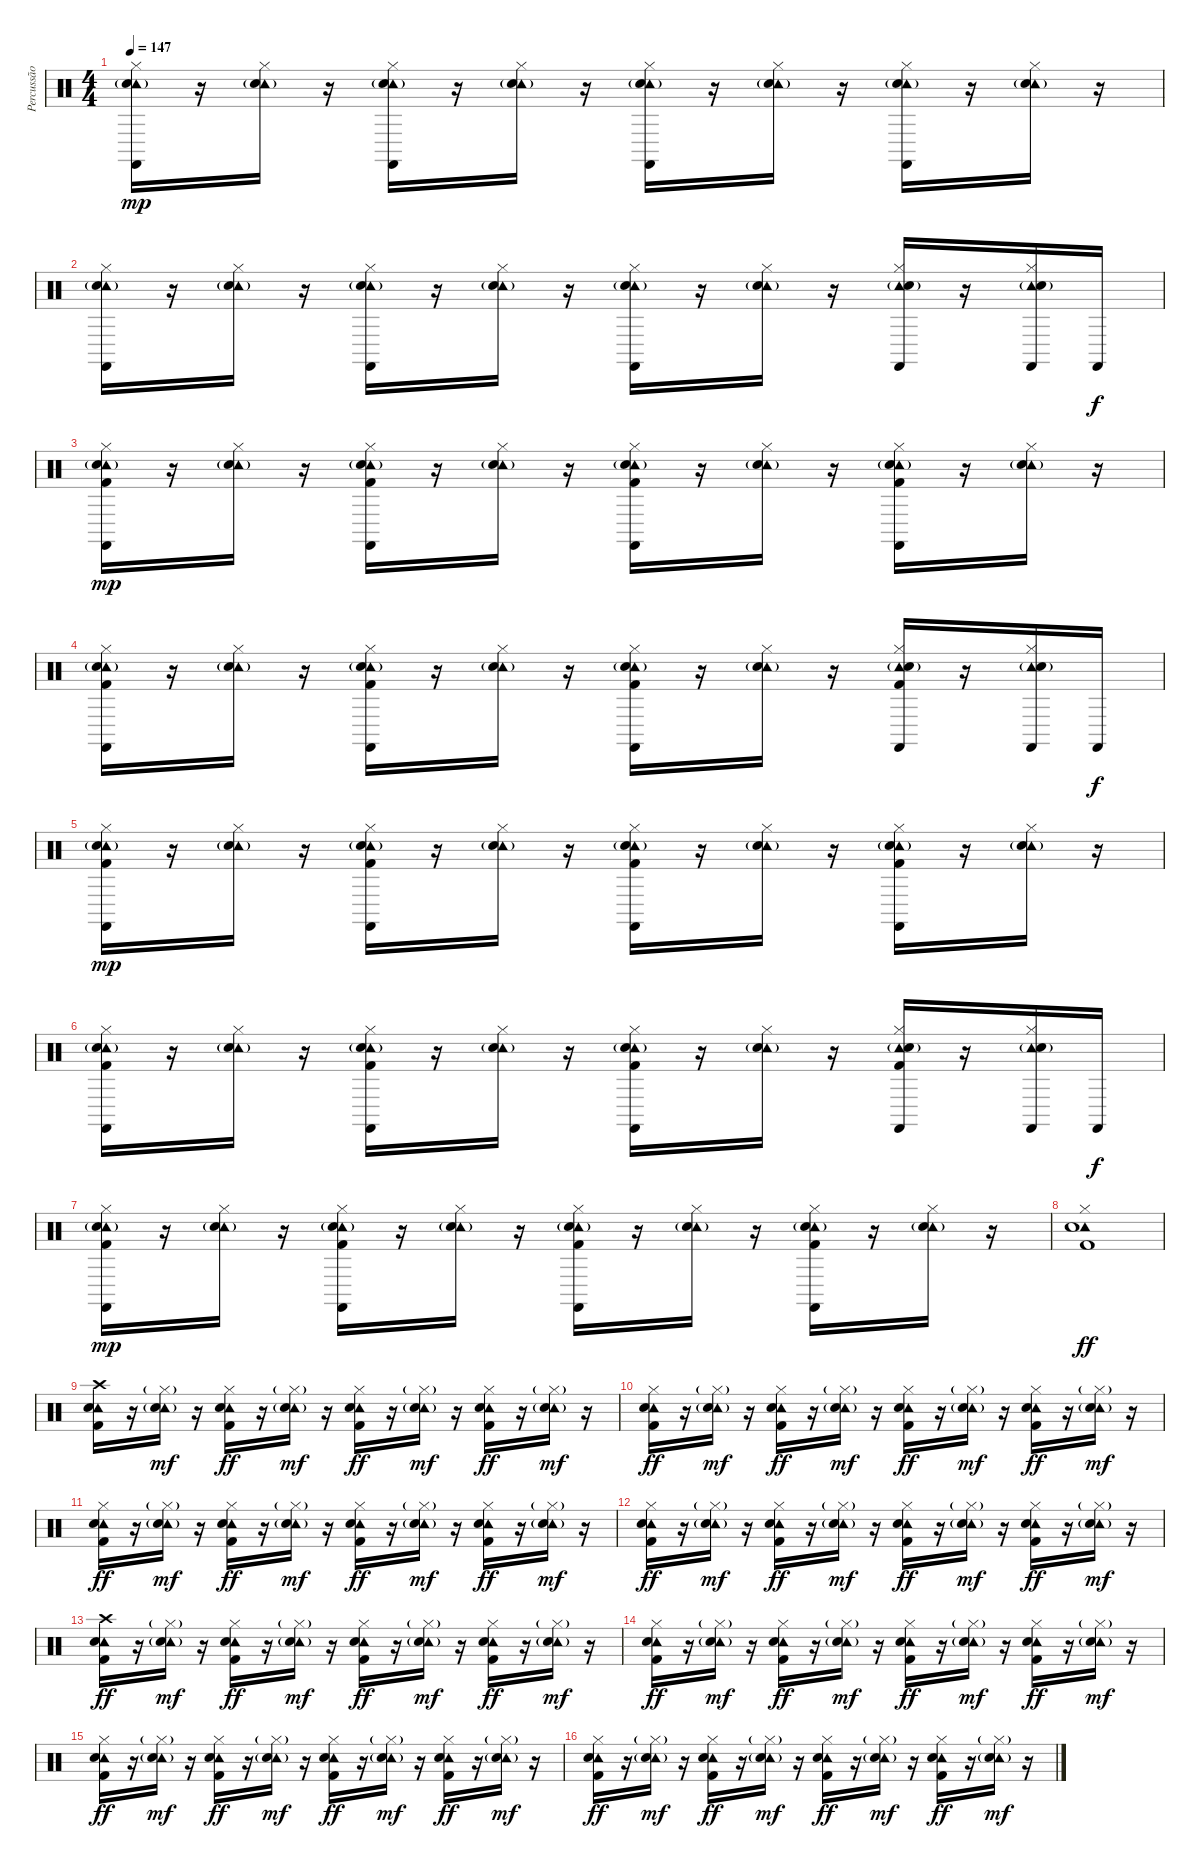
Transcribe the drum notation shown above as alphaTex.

\track ("Percussão" "Percussão") {instrument percussion}
\staff {score}
\articulation defaults
\ts (4 4)
\tempo 147
\clef neutral
\ks c
("Hi-Hat (closed)" "Castanets (hit)" "Tambourine (hit)" "Snare (hit) 2"{g}).16{dy mp} r.16 ("Hi-Hat (closed)" "Tambourine (hit)" "Snare (hit) 2"{g}).16 r.16 ("Hi-Hat (closed)" "Castanets (hit)" "Tambourine (hit)" "Snare (hit) 2"{g}).16 r.16 ("Hi-Hat (closed)" "Tambourine (hit)" "Snare (hit) 2"{g}).16 r.16 ("Hi-Hat (closed)" "Castanets (hit)" "Tambourine (hit)" "Snare (hit) 2"{g}).16 r.16 ("Hi-Hat (closed)" "Tambourine (hit)" "Snare (hit) 2"{g}).16 r.16 ("Hi-Hat (closed)" "Castanets (hit)" "Tambourine (hit)" "Snare (hit) 2"{g}).16 r.16 ("Hi-Hat (closed)" "Tambourine (hit)" "Snare (hit) 2"{g}).16 r.16 |
("Hi-Hat (closed)" "Castanets (hit)" "Tambourine (hit)" "Snare (hit) 2"{g}).16 r.16 ("Hi-Hat (closed)" "Tambourine (hit)" "Snare (hit) 2"{g}).16 r.16 ("Hi-Hat (closed)" "Castanets (hit)" "Tambourine (hit)" "Snare (hit) 2"{g}).16 r.16 ("Hi-Hat (closed)" "Tambourine (hit)" "Snare (hit) 2"{g}).16 r.16 ("Hi-Hat (closed)" "Castanets (hit)" "Tambourine (hit)" "Snare (hit) 2"{g}).16 r.16 ("Hi-Hat (closed)" "Tambourine (hit)" "Snare (hit) 2"{g}).16 r.16 ("Hi-Hat (closed)" "Castanets (hit)" "Tambourine (hit)" "Snare (hit) 2"{g}).16 r.16 ("Hi-Hat (closed)" "Castanets (hit)" "Tambourine (hit)" "Snare (hit) 2"{g}).16 "Castanets (hit)".16{dy f} |
("Hi-Hat (closed)" "Castanets (hit)" "Tambourine (hit)" "Snare (hit) 2"{g} "Kick (hit) 2").16{dy mp} r.16 ("Hi-Hat (closed)" "Tambourine (hit)" "Snare (hit) 2"{g}).16 r.16 ("Hi-Hat (closed)" "Castanets (hit)" "Tambourine (hit)" "Snare (hit) 2"{g} "Kick (hit) 2").16 r.16 ("Hi-Hat (closed)" "Tambourine (hit)" "Snare (hit) 2"{g}).16 r.16 ("Hi-Hat (closed)" "Castanets (hit)" "Tambourine (hit)" "Snare (hit) 2"{g} "Kick (hit) 2").16 r.16 ("Hi-Hat (closed)" "Tambourine (hit)" "Snare (hit) 2"{g}).16 r.16 ("Hi-Hat (closed)" "Castanets (hit)" "Tambourine (hit)" "Snare (hit) 2"{g} "Kick (hit) 2").16 r.16 ("Hi-Hat (closed)" "Tambourine (hit)" "Snare (hit) 2"{g}).16 r.16 |
("Hi-Hat (closed)" "Castanets (hit)" "Tambourine (hit)" "Snare (hit) 2"{g} "Kick (hit) 2").16 r.16 ("Hi-Hat (closed)" "Tambourine (hit)" "Snare (hit) 2"{g}).16 r.16 ("Hi-Hat (closed)" "Castanets (hit)" "Tambourine (hit)" "Snare (hit) 2"{g} "Kick (hit) 2").16 r.16 ("Hi-Hat (closed)" "Tambourine (hit)" "Snare (hit) 2"{g}).16 r.16 ("Hi-Hat (closed)" "Castanets (hit)" "Tambourine (hit)" "Snare (hit) 2"{g} "Kick (hit) 2").16 r.16 ("Hi-Hat (closed)" "Tambourine (hit)" "Snare (hit) 2"{g}).16 r.16 ("Hi-Hat (closed)" "Castanets (hit)" "Tambourine (hit)" "Snare (hit) 2"{g} "Kick (hit) 2").16 r.16 ("Hi-Hat (closed)" "Castanets (hit)" "Tambourine (hit)" "Snare (hit) 2"{g}).16 "Castanets (hit)".16{dy f} |
("Hi-Hat (closed)" "Castanets (hit)" "Tambourine (hit)" "Snare (hit) 2"{g} "Kick (hit) 2").16{dy mp} r.16 ("Hi-Hat (closed)" "Tambourine (hit)" "Snare (hit) 2"{g}).16 r.16 ("Hi-Hat (closed)" "Castanets (hit)" "Tambourine (hit)" "Snare (hit) 2"{g} "Kick (hit) 2").16 r.16 ("Hi-Hat (closed)" "Tambourine (hit)" "Snare (hit) 2"{g}).16 r.16 ("Hi-Hat (closed)" "Castanets (hit)" "Tambourine (hit)" "Snare (hit) 2"{g} "Kick (hit) 2").16 r.16 ("Hi-Hat (closed)" "Tambourine (hit)" "Snare (hit) 2"{g}).16 r.16 ("Hi-Hat (closed)" "Castanets (hit)" "Tambourine (hit)" "Snare (hit) 2"{g} "Kick (hit) 2").16 r.16 ("Hi-Hat (closed)" "Tambourine (hit)" "Snare (hit) 2"{g}).16 r.16 |
("Hi-Hat (closed)" "Castanets (hit)" "Tambourine (hit)" "Snare (hit) 2"{g} "Kick (hit) 2").16 r.16 ("Hi-Hat (closed)" "Tambourine (hit)" "Snare (hit) 2"{g}).16 r.16 ("Hi-Hat (closed)" "Castanets (hit)" "Tambourine (hit)" "Snare (hit) 2"{g} "Kick (hit) 2").16 r.16 ("Hi-Hat (closed)" "Tambourine (hit)" "Snare (hit) 2"{g}).16 r.16 ("Hi-Hat (closed)" "Castanets (hit)" "Tambourine (hit)" "Snare (hit) 2"{g} "Kick (hit) 2").16 r.16 ("Hi-Hat (closed)" "Tambourine (hit)" "Snare (hit) 2"{g}).16 r.16 ("Hi-Hat (closed)" "Castanets (hit)" "Tambourine (hit)" "Snare (hit) 2"{g} "Kick (hit) 2").16 r.16 ("Hi-Hat (closed)" "Castanets (hit)" "Tambourine (hit)" "Snare (hit) 2"{g}).16 "Castanets (hit)".16{dy f} |
("Hi-Hat (closed)" "Castanets (hit)" "Tambourine (hit)" "Snare (hit) 2"{g} "Kick (hit) 2").16{dy mp} r.16 ("Hi-Hat (closed)" "Tambourine (hit)" "Snare (hit) 2"{g}).16 r.16 ("Hi-Hat (closed)" "Castanets (hit)" "Tambourine (hit)" "Snare (hit) 2"{g} "Kick (hit) 2").16 r.16 ("Hi-Hat (closed)" "Tambourine (hit)" "Snare (hit) 2"{g}).16 r.16 ("Hi-Hat (closed)" "Castanets (hit)" "Tambourine (hit)" "Snare (hit) 2"{g} "Kick (hit) 2").16 r.16 ("Hi-Hat (closed)" "Tambourine (hit)" "Snare (hit) 2"{g}).16 r.16 ("Hi-Hat (closed)" "Castanets (hit)" "Tambourine (hit)" "Snare (hit) 2"{g} "Kick (hit) 2").16 r.16 ("Hi-Hat (closed)" "Tambourine (hit)" "Snare (hit) 2"{g}).16 r.16 |
("Hi-Hat (closed)" "Tambourine (hit)" "Snare (hit) 2" "Kick (hit) 2").1{dy ff} |
("Crash high (hit)" "Tambourine (hit)" "Snare (hit) 2" "Kick (hit) 2").16{volume 13} r.16 ("Hi-Hat (closed)"{g} "Tambourine (hit)" "Snare (hit) 2"{g}).16{dy mf} r.16 ("Hi-Hat (closed)" "Tambourine (hit)" "Snare (hit) 2" "Kick (hit) 2").16{dy ff} r.16 ("Hi-Hat (closed)"{g} "Tambourine (hit)" "Snare (hit) 2"{g}).16{dy mf} r.16 ("Hi-Hat (closed)" "Tambourine (hit)" "Snare (hit) 2" "Kick (hit) 2").16{dy ff} r.16 ("Hi-Hat (closed)"{g} "Tambourine (hit)" "Snare (hit) 2"{g}).16{dy mf} r.16 ("Hi-Hat (closed)" "Tambourine (hit)" "Snare (hit) 2" "Kick (hit) 2").16{dy ff} r.16 ("Hi-Hat (closed)"{g} "Tambourine (hit)" "Snare (hit) 2"{g}).16{dy mf} r.16 |
("Hi-Hat (closed)" "Tambourine (hit)" "Snare (hit) 2" "Kick (hit) 2").16{dy ff} r.16 ("Hi-Hat (closed)"{g} "Tambourine (hit)" "Snare (hit) 2"{g}).16{dy mf} r.16 ("Hi-Hat (closed)" "Tambourine (hit)" "Snare (hit) 2" "Kick (hit) 2").16{dy ff} r.16 ("Hi-Hat (closed)"{g} "Tambourine (hit)" "Snare (hit) 2"{g}).16{dy mf} r.16 ("Hi-Hat (closed)" "Tambourine (hit)" "Snare (hit) 2" "Kick (hit) 2").16{dy ff} r.16 ("Hi-Hat (closed)"{g} "Tambourine (hit)" "Snare (hit) 2"{g}).16{dy mf} r.16 ("Hi-Hat (closed)" "Tambourine (hit)" "Snare (hit) 2" "Kick (hit) 2").16{dy ff} r.16 ("Hi-Hat (closed)"{g} "Tambourine (hit)" "Snare (hit) 2"{g}).16{dy mf} r.16 |
("Hi-Hat (closed)" "Tambourine (hit)" "Snare (hit) 2" "Kick (hit) 2").16{dy ff volume 13} r.16 ("Hi-Hat (closed)"{g} "Tambourine (hit)" "Snare (hit) 2"{g}).16{dy mf} r.16 ("Hi-Hat (closed)" "Tambourine (hit)" "Snare (hit) 2" "Kick (hit) 2").16{dy ff} r.16 ("Hi-Hat (closed)"{g} "Tambourine (hit)" "Snare (hit) 2"{g}).16{dy mf} r.16 ("Hi-Hat (closed)" "Tambourine (hit)" "Snare (hit) 2" "Kick (hit) 2").16{dy ff} r.16 ("Hi-Hat (closed)"{g} "Tambourine (hit)" "Snare (hit) 2"{g}).16{dy mf} r.16 ("Hi-Hat (closed)" "Tambourine (hit)" "Snare (hit) 2" "Kick (hit) 2").16{dy ff} r.16 ("Hi-Hat (closed)"{g} "Tambourine (hit)" "Snare (hit) 2"{g}).16{dy mf} r.16 |
("Hi-Hat (closed)" "Tambourine (hit)" "Snare (hit) 2" "Kick (hit) 2").16{dy ff} r.16 ("Hi-Hat (closed)"{g} "Tambourine (hit)" "Snare (hit) 2"{g}).16{dy mf} r.16 ("Hi-Hat (closed)" "Tambourine (hit)" "Snare (hit) 2" "Kick (hit) 2").16{dy ff} r.16 ("Hi-Hat (closed)"{g} "Tambourine (hit)" "Snare (hit) 2"{g}).16{dy mf} r.16 ("Hi-Hat (closed)" "Tambourine (hit)" "Snare (hit) 2" "Kick (hit) 2").16{dy ff} r.16 ("Hi-Hat (closed)"{g} "Tambourine (hit)" "Snare (hit) 2"{g}).16{dy mf} r.16 ("Hi-Hat (closed)" "Tambourine (hit)" "Snare (hit) 2" "Kick (hit) 2").16{dy ff} r.16 ("Hi-Hat (closed)"{g} "Tambourine (hit)" "Snare (hit) 2"{g}).16{dy mf} r.16 |
("Crash high (hit)" "Tambourine (hit)" "Snare (hit) 2" "Kick (hit) 2").16{dy ff volume 13} r.16 ("Hi-Hat (closed)"{g} "Tambourine (hit)" "Snare (hit) 2"{g}).16{dy mf} r.16 ("Hi-Hat (closed)" "Tambourine (hit)" "Snare (hit) 2" "Kick (hit) 2").16{dy ff} r.16 ("Hi-Hat (closed)"{g} "Tambourine (hit)" "Snare (hit) 2"{g}).16{dy mf} r.16 ("Hi-Hat (closed)" "Tambourine (hit)" "Snare (hit) 2" "Kick (hit) 2").16{dy ff} r.16 ("Hi-Hat (closed)"{g} "Tambourine (hit)" "Snare (hit) 2"{g}).16{dy mf} r.16 ("Hi-Hat (closed)" "Tambourine (hit)" "Snare (hit) 2" "Kick (hit) 2").16{dy ff} r.16 ("Hi-Hat (closed)"{g} "Tambourine (hit)" "Snare (hit) 2"{g}).16{dy mf} r.16 |
("Hi-Hat (closed)" "Tambourine (hit)" "Snare (hit) 2" "Kick (hit) 2").16{dy ff} r.16 ("Hi-Hat (closed)"{g} "Tambourine (hit)" "Snare (hit) 2"{g}).16{dy mf} r.16 ("Hi-Hat (closed)" "Tambourine (hit)" "Snare (hit) 2" "Kick (hit) 2").16{dy ff} r.16 ("Hi-Hat (closed)"{g} "Tambourine (hit)" "Snare (hit) 2"{g}).16{dy mf} r.16 ("Hi-Hat (closed)" "Tambourine (hit)" "Snare (hit) 2" "Kick (hit) 2").16{dy ff} r.16 ("Hi-Hat (closed)"{g} "Tambourine (hit)" "Snare (hit) 2"{g}).16{dy mf} r.16 ("Hi-Hat (closed)" "Tambourine (hit)" "Snare (hit) 2" "Kick (hit) 2").16{dy ff} r.16 ("Hi-Hat (closed)"{g} "Tambourine (hit)" "Snare (hit) 2"{g}).16{dy mf} r.16 |
("Hi-Hat (closed)" "Tambourine (hit)" "Snare (hit) 2" "Kick (hit) 2").16{dy ff volume 13} r.16 ("Hi-Hat (closed)"{g} "Tambourine (hit)" "Snare (hit) 2"{g}).16{dy mf} r.16 ("Hi-Hat (closed)" "Tambourine (hit)" "Snare (hit) 2" "Kick (hit) 2").16{dy ff} r.16 ("Hi-Hat (closed)"{g} "Tambourine (hit)" "Snare (hit) 2"{g}).16{dy mf} r.16 ("Hi-Hat (closed)" "Tambourine (hit)" "Snare (hit) 2" "Kick (hit) 2").16{dy ff} r.16 ("Hi-Hat (closed)"{g} "Tambourine (hit)" "Snare (hit) 2"{g}).16{dy mf} r.16 ("Hi-Hat (closed)" "Tambourine (hit)" "Snare (hit) 2" "Kick (hit) 2").16{dy ff} r.16 ("Hi-Hat (closed)"{g} "Tambourine (hit)" "Snare (hit) 2"{g}).16{dy mf} r.16 |
("Hi-Hat (closed)" "Tambourine (hit)" "Snare (hit) 2" "Kick (hit) 2").16{dy ff} r.16 ("Hi-Hat (closed)"{g} "Tambourine (hit)" "Snare (hit) 2"{g}).16{dy mf} r.16 ("Hi-Hat (closed)" "Tambourine (hit)" "Snare (hit) 2" "Kick (hit) 2").16{dy ff} r.16 ("Hi-Hat (closed)"{g} "Tambourine (hit)" "Snare (hit) 2"{g}).16{dy mf} r.16 ("Hi-Hat (closed)" "Tambourine (hit)" "Snare (hit) 2" "Kick (hit) 2").16{dy ff} r.16 ("Hi-Hat (closed)"{g} "Tambourine (hit)" "Snare (hit) 2"{g}).16{dy mf} r.16 ("Hi-Hat (closed)" "Tambourine (hit)" "Snare (hit) 2" "Kick (hit) 2").16{dy ff} r.16 ("Hi-Hat (closed)"{g} "Tambourine (hit)" "Snare (hit) 2"{g}).16{dy mf} r.16
